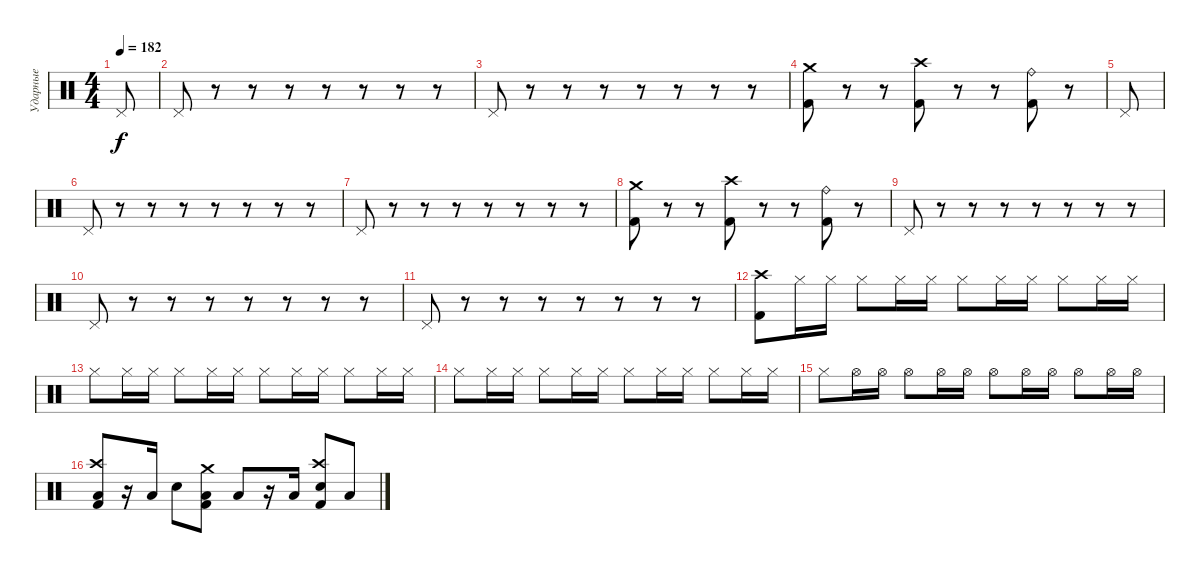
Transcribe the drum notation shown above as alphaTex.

\track ("Ударные" "Ударные") {instrument percussion}
\staff {score}
\articulation defaults
\ts (4 4)
\tempo 182
\clef neutral
\ks c "Pedal Hi-Hat (hit)".8{dy f}
|
"Pedal Hi-Hat (hit)".8 r.8 r.8 r.8 r.8 r.8 r.8 r.8 |
"Pedal Hi-Hat (hit)".8 r.8 r.8 r.8 r.8 r.8 r.8 r.8 |
("Crash medium (hit)" "Kick (hit) 2").8 r.8 r.8 ("Crash high (hit)" "Kick (hit) 2").8 r.8 r.8 ("Ride (bell)" "Kick (hit) 2").8 r.8 |
"Pedal Hi-Hat (hit)".8 |
"Pedal Hi-Hat (hit)".8 r.8 r.8 r.8 r.8 r.8 r.8 r.8 |
"Pedal Hi-Hat (hit)".8 r.8 r.8 r.8 r.8 r.8 r.8 r.8 |
("Crash medium (hit)" "Kick (hit) 2").8 r.8 r.8 ("Crash high (hit)" "Kick (hit) 2").8 r.8 r.8 ("Ride (bell)" "Kick (hit) 2").8 r.8 |
"Pedal Hi-Hat (hit)".8 r.8 r.8 r.8 r.8 r.8 r.8 r.8 |
"Pedal Hi-Hat (hit)".8 r.8 r.8 r.8 r.8 r.8 r.8 r.8 |
"Pedal Hi-Hat (hit)".8 r.8 r.8 r.8 r.8 r.8 r.8 r.8 |
("Crash high (hit)" "Kick (hit) 2").8 "Hi-Hat (closed)".16 "Hi-Hat (closed)".16 "Hi-Hat (closed)".8 "Hi-Hat (closed)".16 "Hi-Hat (closed)".16 "Hi-Hat (closed)".8 "Hi-Hat (closed)".16 "Hi-Hat (closed)".16 "Hi-Hat (closed)".8 "Hi-Hat (closed)".16 "Hi-Hat (closed)".16 |
"Hi-Hat (closed)".8 "Hi-Hat (closed)".16 "Hi-Hat (closed)".16 "Hi-Hat (closed)".8 "Hi-Hat (closed)".16 "Hi-Hat (closed)".16 "Hi-Hat (closed)".8 "Hi-Hat (closed)".16 "Hi-Hat (closed)".16 "Hi-Hat (closed)".8 "Hi-Hat (closed)".16 "Hi-Hat (closed)".16 |
"Hi-Hat (closed)".8 "Hi-Hat (closed)".16 "Hi-Hat (closed)".16 "Hi-Hat (closed)".8 "Hi-Hat (closed)".16 "Hi-Hat (closed)".16 "Hi-Hat (closed)".8 "Hi-Hat (closed)".16 "Hi-Hat (closed)".16 "Hi-Hat (closed)".8 "Hi-Hat (closed)".16 "Hi-Hat (closed)".16 |
"Hi-Hat (closed)".8 "Hi-Hat (open)".16 "Hi-Hat (open)".16 "Hi-Hat (open)".8 "Hi-Hat (open)".16 "Hi-Hat (open)".16 "Hi-Hat (open)".8 "Hi-Hat (open)".16 "Hi-Hat (open)".16 "Hi-Hat (open)".8 "Hi-Hat (open)".16 "Hi-Hat (open)".16 |
("Crash high (hit)" "Low Floor Tom (hit)" "Kick (hit) 2").8 r.16 "Low Floor Tom (hit)".16 "Electric Snare (hit)".8 ("Crash medium (hit)" "Low Floor Tom (hit)" "Kick (hit) 2").8 "Low Floor Tom (hit)".8 r.16 "Low Floor Tom (hit)".16 ("Crash high (hit)" "Electric Snare (hit)" "Kick (hit) 2").8 "Low Floor Tom (hit)".8
